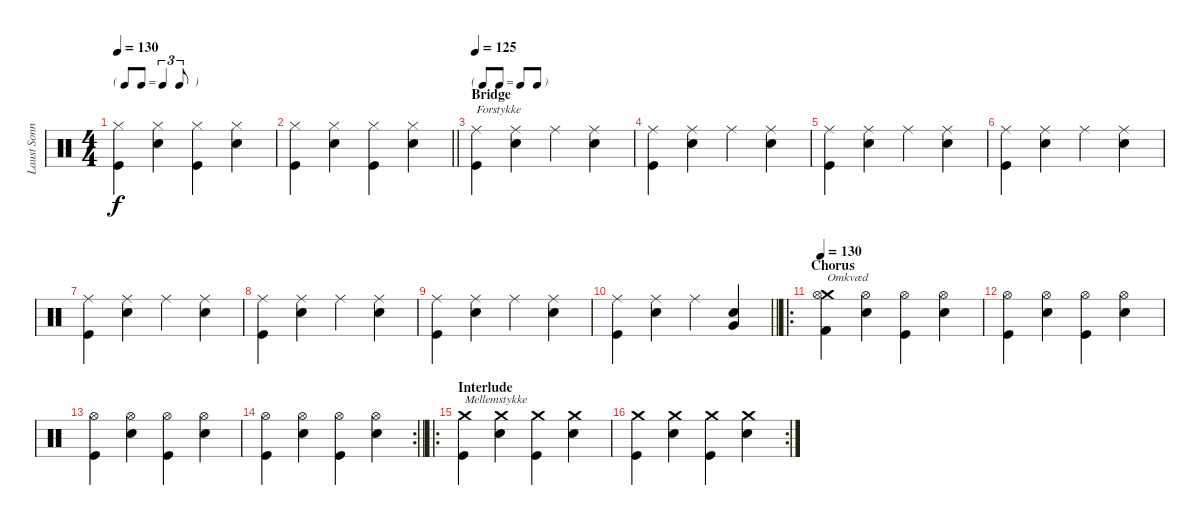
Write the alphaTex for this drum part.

\track ("Laust Sonne (Trommer)" "Laust Sonn") {instrument percussion}
\staff {score}
\articulation defaults
\ts (4 4)
\tf triplet8th
\tempo 130
\clef neutral
\ks c
("Hi-Hat (closed)" "Kick (hit)").4{dy f} ("Hi-Hat (closed)" "Snare (hit) 2").4 ("Hi-Hat (closed)" "Kick (hit)").4 ("Hi-Hat (closed)" "Snare (hit) 2").4 |
\barLineRight lightlight
("Hi-Hat (closed)" "Kick (hit)").4 ("Hi-Hat (closed)" "Snare (hit) 2").4 ("Hi-Hat (closed)" "Kick (hit)").4 ("Hi-Hat (closed)" "Snare (hit) 2").4 |
\tf none
\section ("" "Bridge")
\tempo 125
("Ride (middle)" "Kick (hit)").4{txt "Forstykke"} ("Ride (middle)" "Snare (hit) 2").4 "Ride (middle)".4 ("Ride (middle)" "Snare (hit) 2").4 |
("Ride (middle)" "Kick (hit)").4 ("Ride (middle)" "Snare (hit) 2").4 "Ride (middle)".4 ("Ride (middle)" "Snare (hit) 2").4 |
("Ride (middle)" "Kick (hit)").4 ("Ride (middle)" "Snare (hit) 2").4 "Ride (middle)".4 ("Ride (middle)" "Snare (hit) 2").4 |
("Ride (middle)" "Kick (hit)").4 ("Ride (middle)" "Snare (hit) 2").4 "Ride (middle)".4 ("Ride (middle)" "Snare (hit) 2").4 |
("Ride (middle)" "Kick (hit)").4 ("Ride (middle)" "Snare (hit) 2").4 "Ride (middle)".4 ("Ride (middle)" "Snare (hit) 2").4 |
("Ride (middle)" "Kick (hit)").4 ("Ride (middle)" "Snare (hit) 2").4 "Ride (middle)".4 ("Ride (middle)" "Snare (hit) 2").4 |
("Ride (middle)" "Kick (hit)").4 ("Ride (middle)" "Snare (hit) 2").4 "Ride (middle)".4 ("Ride (middle)" "Snare (hit) 2").4 |
\barLineRight lightlight
("Ride (middle)" "Kick (hit)").4 ("Ride (middle)" "Snare (hit) 2").4 "Ride (middle)".4 ("Very Low Tom (hit)" "Snare (hit) 2").4 |
\ro
\section ("" "Chorus")
\tempo 130
("Crash medium (hit)" "Hi-Hat (open)" "Kick (hit) 2").4{txt "Omkvæd"} ("Hi-Hat (open)" "Snare (hit) 2").4 ("Hi-Hat (open)" "Kick (hit)").4 ("Hi-Hat (open)" "Snare (hit) 2").4 |
("Hi-Hat (open)" "Kick (hit)").4 ("Hi-Hat (open)" "Snare (hit) 2").4 ("Hi-Hat (open)" "Kick (hit)").4 ("Hi-Hat (open)" "Snare (hit) 2").4 |
("Hi-Hat (open)" "Kick (hit)").4 ("Hi-Hat (open)" "Snare (hit) 2").4 ("Hi-Hat (open)" "Kick (hit)").4 ("Hi-Hat (open)" "Snare (hit) 2").4 |
\rc 2
\barLineRight lightlight
("Hi-Hat (open)" "Kick (hit)").4 ("Hi-Hat (open)" "Snare (hit) 2").4 ("Hi-Hat (open)" "Kick (hit)").4 ("Hi-Hat (open)" "Snare (hit) 2").4 |
\ro
\section ("" "Interlude")
("Crash medium (hit)" "Kick (hit)").4{txt "Mellemstykke"} ("Crash medium (hit)" "Snare (hit) 2").4 ("Crash medium (hit)" "Kick (hit)").4 ("Crash medium (hit)" "Snare (hit) 2").4 |
\rc 2
("Crash medium (hit)" "Kick (hit)").4 ("Crash medium (hit)" "Snare (hit) 2").4 ("Crash medium (hit)" "Kick (hit)").4 ("Crash medium (hit)" "Snare (hit) 2").4
